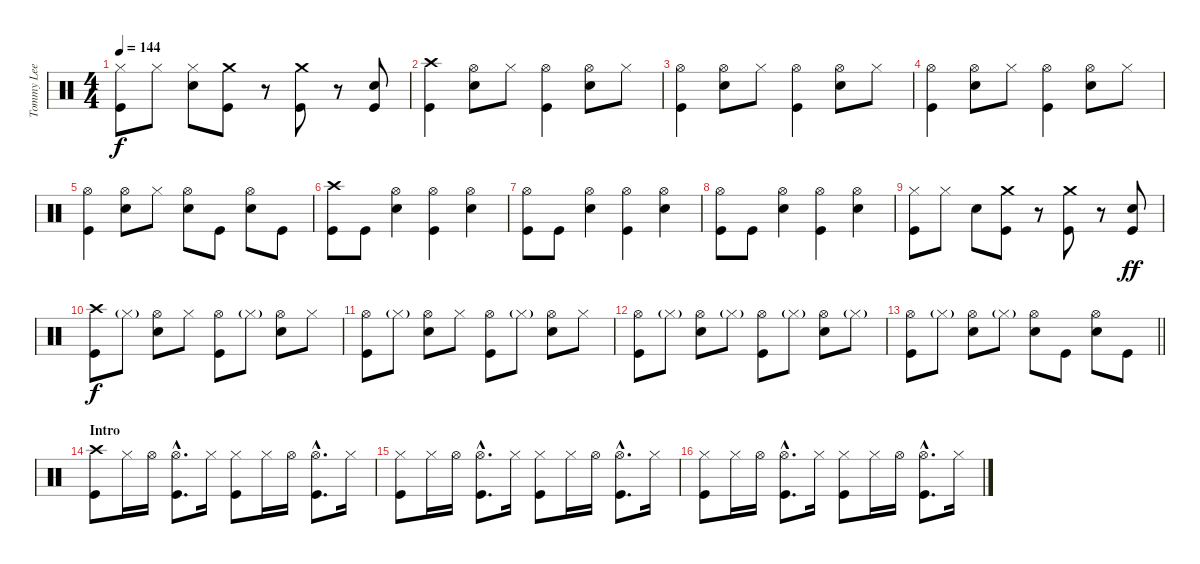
\track ("Tommy Lee" "Tommy Lee") {instrument percussion}
\staff {score}
\articulation defaults
\ts (4 4)
\tempo 144
\clef neutral
\ks c
("Hi-Hat (closed)" "Kick (hit)").8{dy f} "Hi-Hat (closed)".8 ("Hi-Hat (closed)" "Snare (hit) 2").8 ("Crash medium (hit)" "Kick (hit)").8 r.8{volume 0} ("Crash medium (hit)" "Kick (hit)").8{volume 16} r.8{volume 0} ("Snare (hit) 2" "Kick (hit)").8{volume 16} |
("Crash high (hit)" "Kick (hit)").4 ("Hi-Hat (open)" "Snare (hit) 2").8 "Hi-Hat (closed)".8 ("Hi-Hat (open)" "Kick (hit)").4 ("Hi-Hat (open)" "Snare (hit) 2").8 "Hi-Hat (closed)".8 |
("Hi-Hat (open)" "Kick (hit)").4 ("Hi-Hat (open)" "Snare (hit) 2").8 "Hi-Hat (closed)".8 ("Hi-Hat (open)" "Kick (hit)").4 ("Hi-Hat (open)" "Snare (hit) 2").8 "Hi-Hat (closed)".8 |
("Hi-Hat (open)" "Kick (hit)").4 ("Hi-Hat (open)" "Snare (hit) 2").8 "Hi-Hat (closed)".8 ("Hi-Hat (open)" "Kick (hit)").4 ("Hi-Hat (open)" "Snare (hit) 2").8 "Hi-Hat (closed)".8 |
("Hi-Hat (open)" "Kick (hit)").4 ("Hi-Hat (open)" "Snare (hit) 2").8 "Hi-Hat (closed)".8 ("Hi-Hat (open)" "Snare (hit) 2").8 "Kick (hit)".8 ("Hi-Hat (open)" "Snare (hit) 2").8 "Kick (hit)".8 |
("Crash high (hit)" "Kick (hit)").8 "Kick (hit)".8 ("Hi-Hat (open)" "Snare (hit) 2").4 ("Hi-Hat (open)" "Kick (hit)").4 ("Hi-Hat (open)" "Snare (hit) 2").4 |
("Hi-Hat (open)" "Kick (hit)").8 "Kick (hit)".8 ("Hi-Hat (open)" "Snare (hit) 2").4 ("Hi-Hat (open)" "Kick (hit)").4 ("Hi-Hat (open)" "Snare (hit) 2").4 |
("Hi-Hat (open)" "Kick (hit)").8 "Kick (hit)".8 ("Hi-Hat (open)" "Snare (hit) 2").4 ("Hi-Hat (open)" "Kick (hit)").4 ("Hi-Hat (open)" "Snare (hit) 2").4 |
("Hi-Hat (closed)" "Kick (hit)").8 "Hi-Hat (closed)".8 "Snare (hit) 2".8 ("Crash medium (hit)" "Kick (hit)").8 r.8{volume 0} ("Crash medium (hit)" "Kick (hit)").8{volume 16} r.8{volume 0} ("Snare (hit) 2" "Kick (hit)").8{dy ff volume 16} |
("Crash high (hit)" "Kick (hit)").8{dy f} "Hi-Hat (closed)"{g}.8 ("Hi-Hat (open)" "Snare (hit) 2").8 "Hi-Hat (closed)".8 ("Hi-Hat (open)" "Kick (hit)").8 "Hi-Hat (closed)"{g}.8 ("Hi-Hat (open)" "Snare (hit) 2").8 "Hi-Hat (closed)".8 |
("Hi-Hat (open)" "Kick (hit)").8 "Hi-Hat (closed)"{g}.8 ("Hi-Hat (open)" "Snare (hit) 2").8 "Hi-Hat (closed)".8 ("Hi-Hat (open)" "Kick (hit)").8 "Hi-Hat (closed)"{g}.8 ("Hi-Hat (open)" "Snare (hit) 2").8 "Hi-Hat (closed)".8 |
("Hi-Hat (open)" "Kick (hit)").8 "Hi-Hat (closed)"{g}.8 ("Hi-Hat (open)" "Snare (hit) 2").8 "Hi-Hat (closed)"{g}.8 ("Hi-Hat (open)" "Kick (hit)").8 "Hi-Hat (closed)"{g}.8 ("Hi-Hat (open)" "Snare (hit) 2").8 "Hi-Hat (closed)"{g}.8 |
\barLineRight lightlight
("Hi-Hat (open)" "Kick (hit)").8 "Hi-Hat (closed)"{g}.8 ("Hi-Hat (open)" "Snare (hit) 2").8 "Hi-Hat (closed)"{g}.8 ("Hi-Hat (open)" "Snare (hit) 2").8 "Kick (hit)".8 ("Hi-Hat (open)" "Snare (hit) 2").8 "Kick (hit)".8 |
\section ("" "Intro")
("Crash high (hit)" "Kick (hit)").8 "Hi-Hat (closed)".16 "Hi-Hat (open)".16 ("Hi-Hat (open)"{hac} "Kick (hit)"{hac}).8{d} "Hi-Hat (closed)".16 ("Hi-Hat (closed)" "Kick (hit)").8 "Hi-Hat (closed)".16 "Hi-Hat (open)".16 ("Hi-Hat (open)"{hac} "Kick (hit)"{hac}).8{d} "Hi-Hat (closed)".16 |
("Hi-Hat (closed)" "Kick (hit)").8 "Hi-Hat (closed)".16 "Hi-Hat (open)".16 ("Hi-Hat (open)"{hac} "Kick (hit)"{hac}).8{d} "Hi-Hat (closed)".16 ("Hi-Hat (closed)" "Kick (hit)").8 "Hi-Hat (closed)".16 "Hi-Hat (open)".16 ("Hi-Hat (open)"{hac} "Kick (hit)"{hac}).8{d} "Hi-Hat (closed)".16 |
("Hi-Hat (closed)" "Kick (hit)").8 "Hi-Hat (closed)".16 "Hi-Hat (open)".16 ("Hi-Hat (open)"{hac} "Kick (hit)"{hac}).8{d} "Hi-Hat (closed)".16 ("Hi-Hat (closed)" "Kick (hit)").8 "Hi-Hat (closed)".16 "Hi-Hat (open)".16 ("Hi-Hat (open)"{hac} "Kick (hit)"{hac}).8{d} "Hi-Hat (closed)".16
